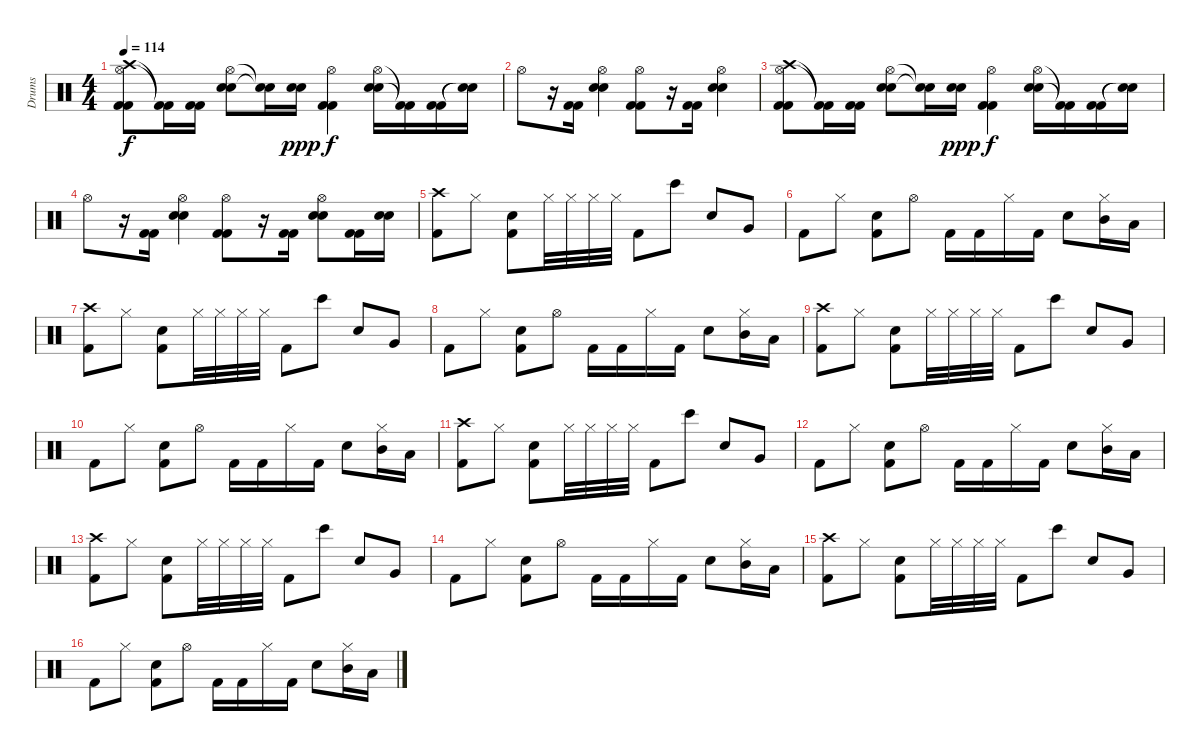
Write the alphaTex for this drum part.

\track ("Drums               " "Drums     ") {instrument percussion}
\staff {score}
\articulation defaults
\ts (4 4)
\tempo 114
\clef neutral
\ks c
("Crash high (hit)" "Hi-Hat (open)" "Kick (hit) 2" "Kick (hit) 2").8{dy f} ("Kick (hit) 2"{t} "Kick (hit) 2"{t}).16 ("Kick (hit) 2" "Kick (hit) 2").16 ("Hi-Hat (open)" "Snare (hit) 2" "Snare (hit) 2").8 ("Snare (hit)"{t} "Snare (hit)"{t}).16 ("Snare (hit) 2" "Snare (hit) 2").16{dy ppp} ("Hi-Hat (open)" "Kick (hit) 2" "Kick (hit) 2").4{dy f} ("Hi-Hat (open)" "Snare (hit) 2" "Snare (hit) 2").16 ("Kick (hit) 2"{t} "Kick (hit) 2"{t}).16 ("Kick (hit) 2" "Kick (hit) 2").16 ("Snare (hit)"{t} "Snare (hit)"{t}).16 |
"Hi-Hat (open)".8 r.16 ("Kick (hit) 2" "Kick (hit) 2").16 ("Hi-Hat (open)" "Snare (hit) 2" "Snare (hit) 2").4 ("Hi-Hat (open)" "Kick (hit) 2" "Kick (hit) 2").8 r.16 ("Kick (hit) 2" "Kick (hit) 2").16 ("Hi-Hat (open)" "Snare (hit) 2" "Snare (hit) 2").4 |
("Crash high (hit)" "Hi-Hat (open)" "Kick (hit) 2" "Kick (hit) 2").8 ("Kick (hit) 2"{t} "Kick (hit) 2"{t}).16 ("Kick (hit) 2" "Kick (hit) 2").16 ("Hi-Hat (open)" "Snare (hit) 2" "Snare (hit) 2").8 ("Snare (hit)"{t} "Snare (hit)"{t}).16 ("Snare (hit) 2" "Snare (hit) 2").16{dy ppp} ("Hi-Hat (open)" "Kick (hit) 2" "Kick (hit) 2").4{dy f} ("Hi-Hat (open)" "Snare (hit) 2" "Snare (hit) 2").16 ("Kick (hit) 2"{t} "Kick (hit) 2"{t}).16 ("Kick (hit) 2" "Kick (hit) 2").16 ("Snare (hit)"{t} "Snare (hit)"{t}).16 |
"Hi-Hat (open)".8 r.16 ("Kick (hit) 2" "Kick (hit) 2").16 ("Hi-Hat (open)" "Snare (hit) 2" "Snare (hit) 2").4 ("Hi-Hat (open)" "Kick (hit) 2" "Kick (hit) 2").8 r.16 ("Kick (hit) 2" "Kick (hit) 2").16 ("Hi-Hat (open)" "Snare (hit) 2" "Snare (hit) 2").8 ("Kick (hit) 2" "Kick (hit) 2").16 ("Snare (hit) 2" "Snare (hit) 2").16 |
("Crash high (hit)" "Kick (hit) 2").8 "Hi-Hat (closed)".8 ("Snare (hit) 2" "Kick (hit) 2").8 "Hi-Hat (closed)".32 "Hi-Hat (closed)".32 "Hi-Hat (closed)".32 "Hi-Hat (closed)".32 "Kick (hit) 2".8 "Bongo High (hit)".8 "Snare (hit) 2".8 "Very Low Tom (hit)".8 |
"Kick (hit) 2".8 "Hi-Hat (closed)".8 ("Snare (hit) 2" "Kick (hit) 2").8 "Hi-Hat (open)".8 "Kick (hit) 2".16 "Kick (hit) 2".16 "Hi-Hat (closed)".16 "Kick (hit) 2".16 "Snare (hit) 2".8 ("Hi-Hat (closed)" "Mid Tom (hit)").16 "Low Tom (hit)".16 |
("Crash high (hit)" "Kick (hit) 2").8 "Hi-Hat (closed)".8 ("Snare (hit) 2" "Kick (hit) 2").8 "Hi-Hat (closed)".32 "Hi-Hat (closed)".32 "Hi-Hat (closed)".32 "Hi-Hat (closed)".32 "Kick (hit) 2".8 "Bongo High (hit)".8 "Snare (hit) 2".8 "Very Low Tom (hit)".8 |
"Kick (hit) 2".8 "Hi-Hat (closed)".8 ("Snare (hit) 2" "Kick (hit) 2").8 "Hi-Hat (open)".8 "Kick (hit) 2".16 "Kick (hit) 2".16 "Hi-Hat (closed)".16 "Kick (hit) 2".16 "Snare (hit) 2".8 ("Hi-Hat (closed)" "Mid Tom (hit)").16 "Low Tom (hit)".16 |
("Crash high (hit)" "Kick (hit) 2").8 "Hi-Hat (closed)".8 ("Snare (hit) 2" "Kick (hit) 2").8 "Hi-Hat (closed)".32 "Hi-Hat (closed)".32 "Hi-Hat (closed)".32 "Hi-Hat (closed)".32 "Kick (hit) 2".8 "Bongo High (hit)".8 "Snare (hit) 2".8 "Very Low Tom (hit)".8 |
"Kick (hit) 2".8 "Hi-Hat (closed)".8 ("Snare (hit) 2" "Kick (hit) 2").8 "Hi-Hat (open)".8 "Kick (hit) 2".16 "Kick (hit) 2".16 "Hi-Hat (closed)".16 "Kick (hit) 2".16 "Snare (hit) 2".8 ("Hi-Hat (closed)" "Mid Tom (hit)").16 "Low Tom (hit)".16 |
("Crash high (hit)" "Kick (hit) 2").8 "Hi-Hat (closed)".8 ("Snare (hit) 2" "Kick (hit) 2").8 "Hi-Hat (closed)".32 "Hi-Hat (closed)".32 "Hi-Hat (closed)".32 "Hi-Hat (closed)".32 "Kick (hit) 2".8 "Bongo High (hit)".8 "Snare (hit) 2".8 "Very Low Tom (hit)".8 |
"Kick (hit) 2".8 "Hi-Hat (closed)".8 ("Snare (hit) 2" "Kick (hit) 2").8 "Hi-Hat (open)".8 "Kick (hit) 2".16 "Kick (hit) 2".16 "Hi-Hat (closed)".16 "Kick (hit) 2".16 "Snare (hit) 2".8 ("Hi-Hat (closed)" "Mid Tom (hit)").16 "Low Tom (hit)".16 |
("Crash high (hit)" "Kick (hit) 2").8 "Hi-Hat (closed)".8 ("Snare (hit) 2" "Kick (hit) 2").8 "Hi-Hat (closed)".32 "Hi-Hat (closed)".32 "Hi-Hat (closed)".32 "Hi-Hat (closed)".32 "Kick (hit) 2".8 "Bongo High (hit)".8 "Snare (hit) 2".8 "Very Low Tom (hit)".8 |
"Kick (hit) 2".8 "Hi-Hat (closed)".8 ("Snare (hit) 2" "Kick (hit) 2").8 "Hi-Hat (open)".8 "Kick (hit) 2".16 "Kick (hit) 2".16 "Hi-Hat (closed)".16 "Kick (hit) 2".16 "Snare (hit) 2".8 ("Hi-Hat (closed)" "Mid Tom (hit)").16 "Low Tom (hit)".16 |
("Crash high (hit)" "Kick (hit) 2").8 "Hi-Hat (closed)".8 ("Snare (hit) 2" "Kick (hit) 2").8 "Hi-Hat (closed)".32 "Hi-Hat (closed)".32 "Hi-Hat (closed)".32 "Hi-Hat (closed)".32 "Kick (hit) 2".8 "Bongo High (hit)".8 "Snare (hit) 2".8 "Very Low Tom (hit)".8 |
"Kick (hit) 2".8 "Hi-Hat (closed)".8 ("Snare (hit) 2" "Kick (hit) 2").8 "Hi-Hat (open)".8 "Kick (hit) 2".16 "Kick (hit) 2".16 "Hi-Hat (closed)".16 "Kick (hit) 2".16 "Snare (hit) 2".8 ("Hi-Hat (closed)" "Mid Tom (hit)").16 "Low Tom (hit)".16
